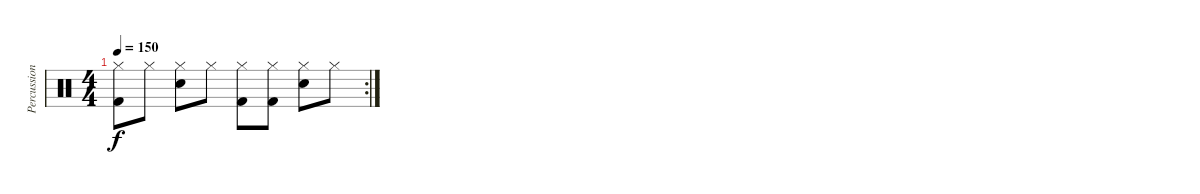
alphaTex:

\track ("Percussion" "Percussion") {instrument percussion}
\staff {score}
\articulation defaults
\rc 2
\ts (4 4)
\tempo 150
\clef neutral
\ks c
("Hi-Hat (closed)" "Kick (hit) 2").8{dy f} "Hi-Hat (closed)".8 ("Hi-Hat (closed)" "Snare (hit) 2").8 "Hi-Hat (closed)".8 ("Hi-Hat (closed)" "Kick (hit) 2").8 ("Hi-Hat (closed)" "Kick (hit) 2").8 ("Hi-Hat (closed)" "Snare (hit) 2").8 "Hi-Hat (closed)".8
